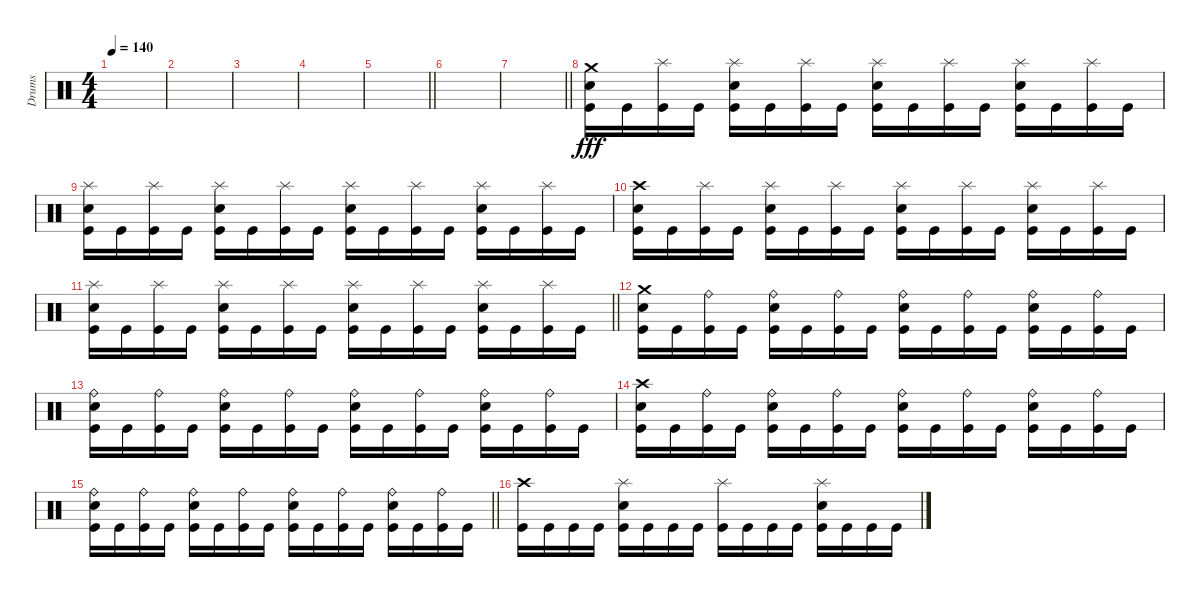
\track ("Drums" "Drums") {instrument percussion}
\staff {score}
\articulation defaults
\ts (4 4)
\tempo 140
\clef neutral
\ks c
|
|
|
|
\barLineRight lightlight
|
|
\barLineRight lightlight
|
("Crash medium (hit)" "Electric Snare (hit)" "Kick (hit)").16{dy fff} "Kick (hit)".16 ("Splash (hit)" "Kick (hit)").16 "Kick (hit)".16 ("Splash (hit)" "Electric Snare (hit)" "Kick (hit)").16 "Kick (hit)".16 ("Splash (hit)" "Kick (hit)").16 "Kick (hit)".16 ("Splash (hit)" "Electric Snare (hit)" "Kick (hit)").16 "Kick (hit)".16 ("Splash (hit)" "Kick (hit)").16 "Kick (hit)".16 ("Splash (hit)" "Electric Snare (hit)" "Kick (hit)").16 "Kick (hit)".16 ("Splash (hit)" "Kick (hit)").16 "Kick (hit)".16 |
("Splash (hit)" "Electric Snare (hit)" "Kick (hit)").16 "Kick (hit)".16 ("Splash (hit)" "Kick (hit)").16 "Kick (hit)".16 ("Splash (hit)" "Electric Snare (hit)" "Kick (hit)").16 "Kick (hit)".16 ("Splash (hit)" "Kick (hit)").16 "Kick (hit)".16 ("Splash (hit)" "Electric Snare (hit)" "Kick (hit)").16 "Kick (hit)".16 ("Splash (hit)" "Kick (hit)").16 "Kick (hit)".16 ("Splash (hit)" "Electric Snare (hit)" "Kick (hit)").16 "Kick (hit)".16 ("Splash (hit)" "Kick (hit)").16 "Kick (hit)".16 |
("Crash high (hit)" "Electric Snare (hit)" "Kick (hit)").16 "Kick (hit)".16 ("Splash (hit)" "Kick (hit)").16 "Kick (hit)".16 ("Splash (hit)" "Electric Snare (hit)" "Kick (hit)").16 "Kick (hit)".16 ("Splash (hit)" "Kick (hit)").16 "Kick (hit)".16 ("Splash (hit)" "Electric Snare (hit)" "Kick (hit)").16 "Kick (hit)".16 ("Splash (hit)" "Kick (hit)").16 "Kick (hit)".16 ("Splash (hit)" "Electric Snare (hit)" "Kick (hit)").16 "Kick (hit)".16 ("Splash (hit)" "Kick (hit)").16 "Kick (hit)".16 |
\barLineRight lightlight
("Splash (hit)" "Electric Snare (hit)" "Kick (hit)").16 "Kick (hit)".16 ("Splash (hit)" "Kick (hit)").16 "Kick (hit)".16 ("Splash (hit)" "Electric Snare (hit)" "Kick (hit)").16 "Kick (hit)".16 ("Splash (hit)" "Kick (hit)").16 "Kick (hit)".16 ("Splash (hit)" "Electric Snare (hit)" "Kick (hit)").16 "Kick (hit)".16 ("Splash (hit)" "Kick (hit)").16 "Kick (hit)".16 ("Splash (hit)" "Electric Snare (hit)" "Kick (hit)").16 "Kick (hit)".16 ("Splash (hit)" "Kick (hit)").16 "Kick (hit)".16 |
("Crash medium (hit)" "Electric Snare (hit)" "Kick (hit)").16 "Kick (hit)".16 ("Ride (bell)" "Kick (hit)").16 "Kick (hit)".16 ("Ride (bell)" "Electric Snare (hit)" "Kick (hit)").16 "Kick (hit)".16 ("Ride (bell)" "Kick (hit)").16 "Kick (hit)".16 ("Ride (bell)" "Electric Snare (hit)" "Kick (hit)").16 "Kick (hit)".16 ("Ride (bell)" "Kick (hit)").16 "Kick (hit)".16 ("Ride (bell)" "Electric Snare (hit)" "Kick (hit)").16 "Kick (hit)".16 ("Ride (bell)" "Kick (hit)").16 "Kick (hit)".16 |
("Ride (bell)" "Electric Snare (hit)" "Kick (hit)").16 "Kick (hit)".16 ("Ride (bell)" "Kick (hit)").16 "Kick (hit)".16 ("Ride (bell)" "Electric Snare (hit)" "Kick (hit)").16 "Kick (hit)".16 ("Ride (bell)" "Kick (hit)").16 "Kick (hit)".16 ("Ride (bell)" "Electric Snare (hit)" "Kick (hit)").16 "Kick (hit)".16 ("Ride (bell)" "Kick (hit)").16 "Kick (hit)".16 ("Ride (bell)" "Electric Snare (hit)" "Kick (hit)").16 "Kick (hit)".16 ("Ride (bell)" "Kick (hit)").16 "Kick (hit)".16 |
("Crash high (hit)" "Electric Snare (hit)" "Kick (hit)").16 "Kick (hit)".16 ("Ride (bell)" "Kick (hit)").16 "Kick (hit)".16 ("Ride (bell)" "Electric Snare (hit)" "Kick (hit)").16 "Kick (hit)".16 ("Ride (bell)" "Kick (hit)").16 "Kick (hit)".16 ("Ride (bell)" "Electric Snare (hit)" "Kick (hit)").16 "Kick (hit)".16 ("Ride (bell)" "Kick (hit)").16 "Kick (hit)".16 ("Ride (bell)" "Electric Snare (hit)" "Kick (hit)").16 "Kick (hit)".16 ("Ride (bell)" "Kick (hit)").16 "Kick (hit)".16 |
\barLineRight lightlight
("Ride (bell)" "Electric Snare (hit)" "Kick (hit)").16 "Kick (hit)".16 ("Ride (bell)" "Kick (hit)").16 "Kick (hit)".16 ("Ride (bell)" "Electric Snare (hit)" "Kick (hit)").16 "Kick (hit)".16 ("Ride (bell)" "Kick (hit)").16 "Kick (hit)".16 ("Ride (bell)" "Electric Snare (hit)" "Kick (hit)").16 "Kick (hit)".16 ("Ride (bell)" "Kick (hit)").16 "Kick (hit)".16 ("Ride (bell)" "Electric Snare (hit)" "Kick (hit)").16 "Kick (hit)".16 ("Ride (bell)" "Kick (hit)").16 "Kick (hit)".16 |
("Crash high (hit)" "Kick (hit)").16 "Kick (hit)".16 "Kick (hit)".16 "Kick (hit)".16 ("Splash (hit)" "Electric Snare (hit)" "Kick (hit)").16 "Kick (hit)".16 "Kick (hit)".16 "Kick (hit)".16 ("Splash (hit)" "Kick (hit)").16 "Kick (hit)".16 "Kick (hit)".16 "Kick (hit)".16 ("Splash (hit)" "Electric Snare (hit)" "Kick (hit)").16 "Kick (hit)".16 "Kick (hit)".16 "Kick (hit)".16
